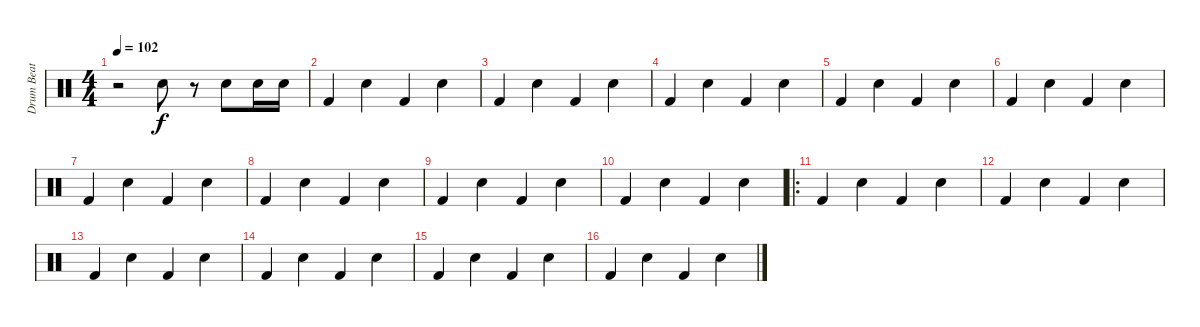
\track ("Drum Beat" "Drum Beat") {instrument percussion}
\staff {score}
\articulation defaults
\ts (4 4)
\tempo 102
\clef neutral
\ks c
r.2{dy f} "Electric Snare (hit)".8 r.8 "Electric Snare (hit)".8 "Electric Snare (hit)".16 "Electric Snare (hit)".16 |
"Kick (hit) 2".4 "Electric Snare (hit)".4 "Kick (hit) 2".4 "Electric Snare (hit)".4 |
"Kick (hit) 2".4 "Electric Snare (hit)".4 "Kick (hit) 2".4 "Electric Snare (hit)".4 |
"Kick (hit) 2".4 "Electric Snare (hit)".4 "Kick (hit) 2".4 "Electric Snare (hit)".4 |
"Kick (hit) 2".4 "Electric Snare (hit)".4 "Kick (hit) 2".4 "Electric Snare (hit)".4 |
"Kick (hit) 2".4 "Electric Snare (hit)".4 "Kick (hit) 2".4 "Electric Snare (hit)".4 |
"Kick (hit) 2".4 "Electric Snare (hit)".4 "Kick (hit) 2".4 "Electric Snare (hit)".4 |
"Kick (hit) 2".4 "Electric Snare (hit)".4 "Kick (hit) 2".4 "Electric Snare (hit)".4 |
"Kick (hit) 2".4 "Electric Snare (hit)".4 "Kick (hit) 2".4 "Electric Snare (hit)".4 |
"Kick (hit) 2".4 "Electric Snare (hit)".4 "Kick (hit) 2".4 "Electric Snare (hit)".4 |
\ro "Kick (hit) 2".4 "Electric Snare (hit)".4 "Kick (hit) 2".4 "Electric Snare (hit)".4
|
"Kick (hit) 2".4 "Electric Snare (hit)".4 "Kick (hit) 2".4 "Electric Snare (hit)".4 |
"Kick (hit) 2".4 "Electric Snare (hit)".4 "Kick (hit) 2".4 "Electric Snare (hit)".4 |
"Kick (hit) 2".4 "Electric Snare (hit)".4 "Kick (hit) 2".4 "Electric Snare (hit)".4 |
"Kick (hit) 2".4 "Electric Snare (hit)".4 "Kick (hit) 2".4 "Electric Snare (hit)".4 |
"Kick (hit) 2".4 "Electric Snare (hit)".4 "Kick (hit) 2".4 "Electric Snare (hit)".4
